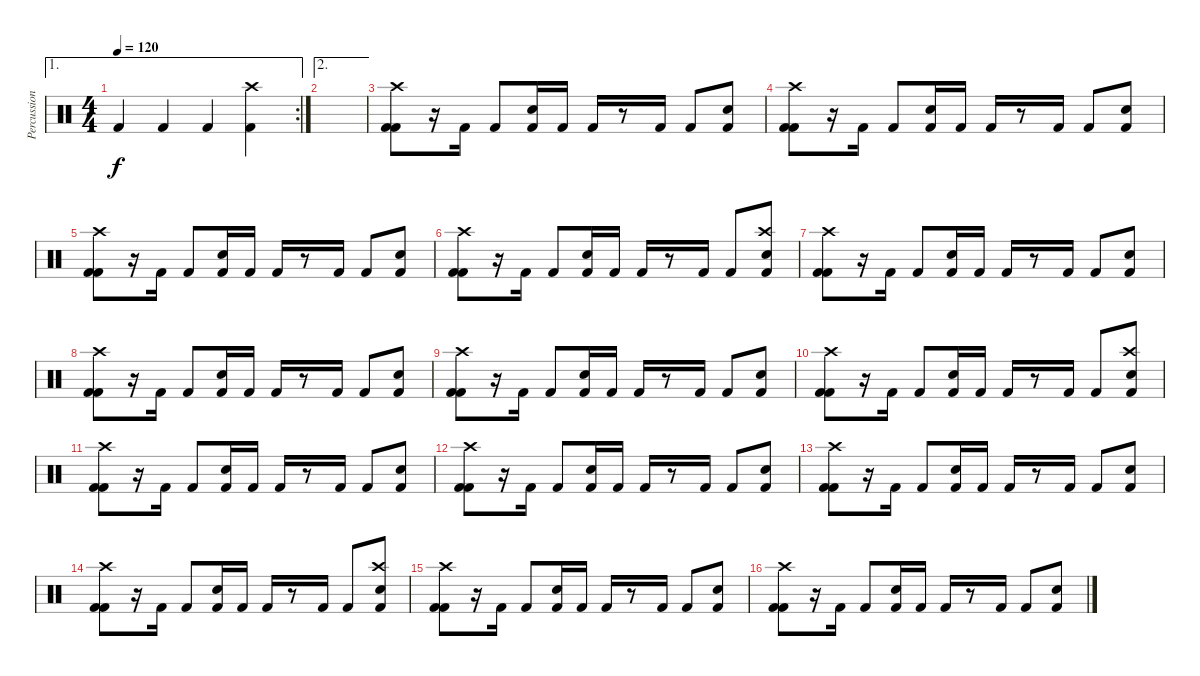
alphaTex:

\track ("Percussion" "Percussion") {instrument percussion}
\staff {score}
\articulation defaults
\ae 1
\rc 2
\ts (4 4)
\tempo 120
\clef neutral
\ks c "Kick (hit) 2".4{dy f} "Kick (hit) 2".4 "Kick (hit) 2".4
("Crash high (hit)" "Kick (hit) 2").4 |
\ae 2
|
("Crash high (hit)" "Kick (hit) 2" "Kick (hit) 2").8 r.16 "Kick (hit) 2".16 "Kick (hit) 2".8 ("Snare (hit) 2" "Kick (hit) 2").16 "Kick (hit) 2".16 "Kick (hit) 2".16 r.8 "Kick (hit) 2".16 "Kick (hit) 2".8 ("Snare (hit) 2" "Kick (hit) 2").8 |
("Crash high (hit)" "Kick (hit) 2" "Kick (hit) 2").8 r.16 "Kick (hit) 2".16 "Kick (hit) 2".8 ("Snare (hit) 2" "Kick (hit) 2").16 "Kick (hit) 2".16 "Kick (hit) 2".16 r.8 "Kick (hit) 2".16 "Kick (hit) 2".8 ("Snare (hit) 2" "Kick (hit) 2").8 |
("Crash high (hit)" "Kick (hit) 2" "Kick (hit) 2").8 r.16 "Kick (hit) 2".16 "Kick (hit) 2".8 ("Snare (hit) 2" "Kick (hit) 2").16 "Kick (hit) 2".16 "Kick (hit) 2".16 r.8 "Kick (hit) 2".16 "Kick (hit) 2".8 ("Snare (hit) 2" "Kick (hit) 2").8 |
("Crash high (hit)" "Kick (hit) 2" "Kick (hit) 2").8 r.16 "Kick (hit) 2".16 "Kick (hit) 2".8 ("Snare (hit) 2" "Kick (hit) 2").16 "Kick (hit) 2".16 "Kick (hit) 2".16 r.8 "Kick (hit) 2".16 "Kick (hit) 2".8 ("Crash high (hit)" "Snare (hit) 2" "Kick (hit) 2").8 |
("Crash high (hit)" "Kick (hit) 2" "Kick (hit) 2").8 r.16 "Kick (hit) 2".16 "Kick (hit) 2".8 ("Snare (hit) 2" "Kick (hit) 2").16 "Kick (hit) 2".16 "Kick (hit) 2".16 r.8 "Kick (hit) 2".16 "Kick (hit) 2".8 ("Snare (hit) 2" "Kick (hit) 2").8 |
("Crash high (hit)" "Kick (hit) 2" "Kick (hit) 2").8 r.16 "Kick (hit) 2".16 "Kick (hit) 2".8 ("Snare (hit) 2" "Kick (hit) 2").16 "Kick (hit) 2".16 "Kick (hit) 2".16 r.8 "Kick (hit) 2".16 "Kick (hit) 2".8 ("Snare (hit) 2" "Kick (hit) 2").8 |
("Crash high (hit)" "Kick (hit) 2" "Kick (hit) 2").8 r.16 "Kick (hit) 2".16 "Kick (hit) 2".8 ("Snare (hit) 2" "Kick (hit) 2").16 "Kick (hit) 2".16 "Kick (hit) 2".16 r.8 "Kick (hit) 2".16 "Kick (hit) 2".8 ("Snare (hit) 2" "Kick (hit) 2").8 |
("Crash high (hit)" "Kick (hit) 2" "Kick (hit) 2").8 r.16 "Kick (hit) 2".16 "Kick (hit) 2".8 ("Snare (hit) 2" "Kick (hit) 2").16 "Kick (hit) 2".16 "Kick (hit) 2".16 r.8 "Kick (hit) 2".16 "Kick (hit) 2".8 ("Crash high (hit)" "Snare (hit) 2" "Kick (hit) 2").8 |
("Crash high (hit)" "Kick (hit) 2" "Kick (hit) 2").8 r.16 "Kick (hit) 2".16 "Kick (hit) 2".8 ("Snare (hit) 2" "Kick (hit) 2").16 "Kick (hit) 2".16 "Kick (hit) 2".16 r.8 "Kick (hit) 2".16 "Kick (hit) 2".8 ("Snare (hit) 2" "Kick (hit) 2").8 |
("Crash high (hit)" "Kick (hit) 2" "Kick (hit) 2").8 r.16 "Kick (hit) 2".16 "Kick (hit) 2".8 ("Snare (hit) 2" "Kick (hit) 2").16 "Kick (hit) 2".16 "Kick (hit) 2".16 r.8 "Kick (hit) 2".16 "Kick (hit) 2".8 ("Snare (hit) 2" "Kick (hit) 2").8 |
("Crash high (hit)" "Kick (hit) 2" "Kick (hit) 2").8 r.16 "Kick (hit) 2".16 "Kick (hit) 2".8 ("Snare (hit) 2" "Kick (hit) 2").16 "Kick (hit) 2".16 "Kick (hit) 2".16 r.8 "Kick (hit) 2".16 "Kick (hit) 2".8 ("Snare (hit) 2" "Kick (hit) 2").8 |
("Crash high (hit)" "Kick (hit) 2" "Kick (hit) 2").8 r.16 "Kick (hit) 2".16 "Kick (hit) 2".8 ("Snare (hit) 2" "Kick (hit) 2").16 "Kick (hit) 2".16 "Kick (hit) 2".16 r.8 "Kick (hit) 2".16 "Kick (hit) 2".8 ("Crash high (hit)" "Snare (hit) 2" "Kick (hit) 2").8 |
("Crash high (hit)" "Kick (hit) 2" "Kick (hit) 2").8 r.16 "Kick (hit) 2".16 "Kick (hit) 2".8 ("Snare (hit) 2" "Kick (hit) 2").16 "Kick (hit) 2".16 "Kick (hit) 2".16 r.8 "Kick (hit) 2".16 "Kick (hit) 2".8 ("Snare (hit) 2" "Kick (hit) 2").8 |
("Crash high (hit)" "Kick (hit) 2" "Kick (hit) 2").8 r.16 "Kick (hit) 2".16 "Kick (hit) 2".8 ("Snare (hit) 2" "Kick (hit) 2").16 "Kick (hit) 2".16 "Kick (hit) 2".16 r.8 "Kick (hit) 2".16 "Kick (hit) 2".8 ("Snare (hit) 2" "Kick (hit) 2").8
